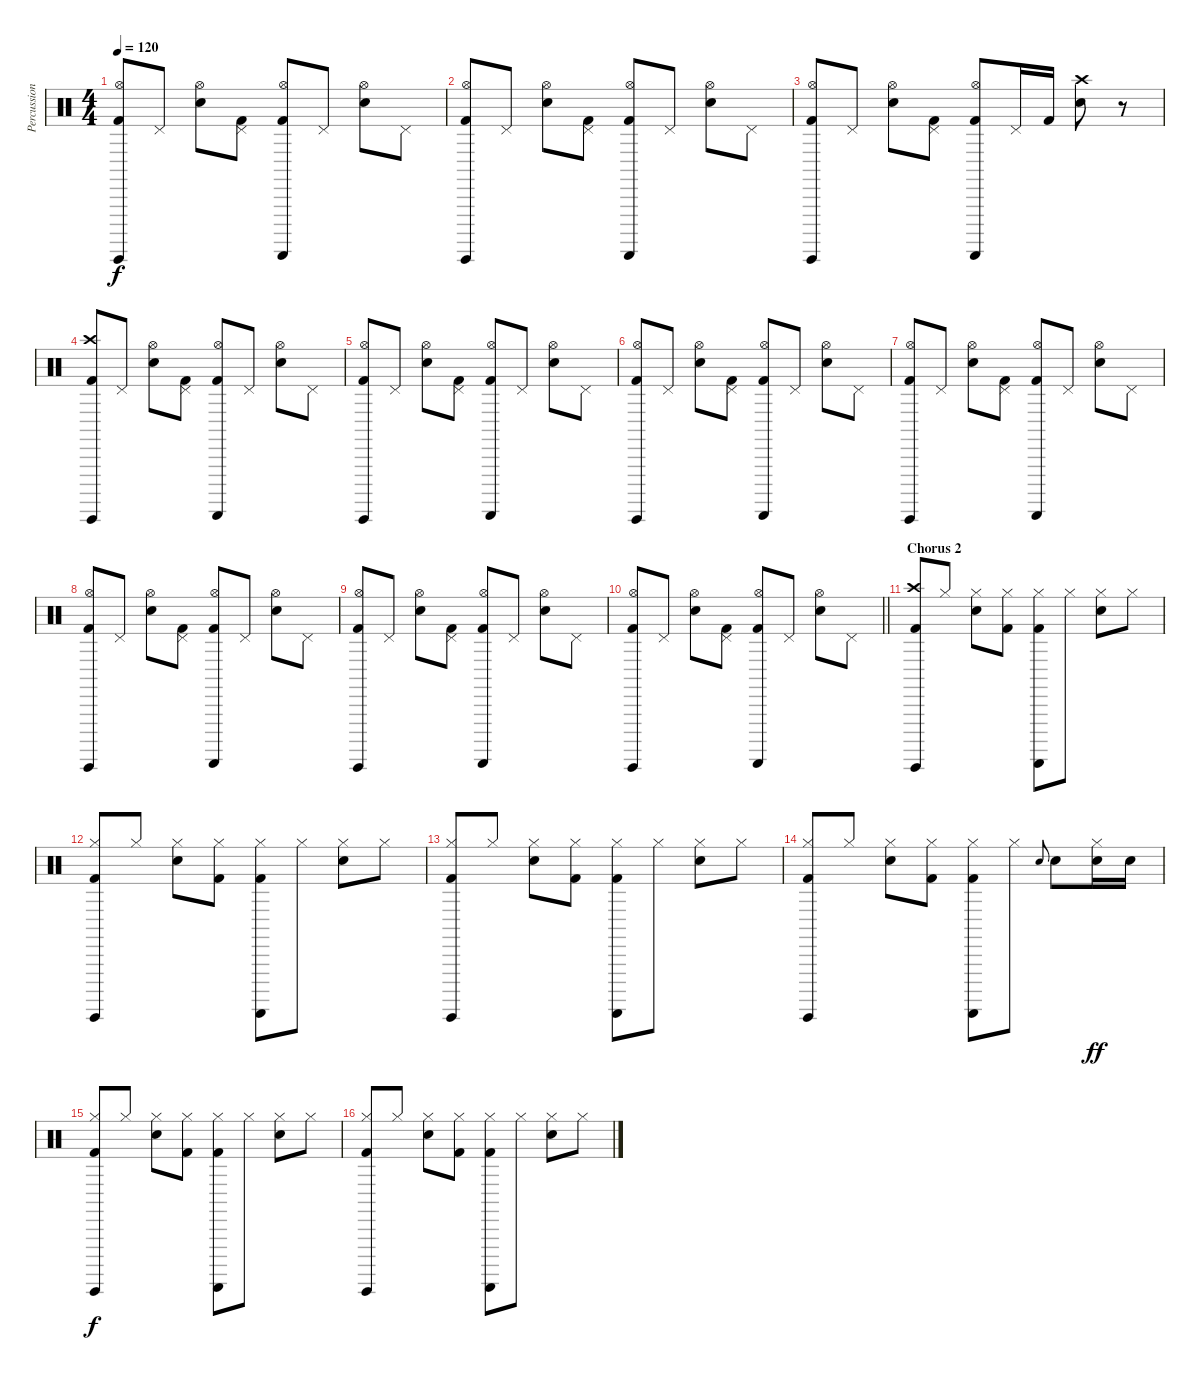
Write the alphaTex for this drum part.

\track ("Percussion" "Percussion") {instrument percussion}
\staff {score}
\articulation defaults
\ts (4 4)
\tempo 120
\clef neutral
\ks c
("Guiro (hit)" "Hi-Hat (open)" "Kick (hit) 2").8{dy f} "Pedal Hi-Hat (hit)".8 ("Hi-Hat (open)" "Electric Snare (hit)").8 ("Pedal Hi-Hat (hit)" "Kick (hit) 2").8 ("Guiro (scrap-return)" "Hi-Hat (open)" "Kick (hit) 2").8 "Pedal Hi-Hat (hit)".8 ("Hi-Hat (open)" "Electric Snare (hit)").8 "Pedal Hi-Hat (hit)".8 |
("Guiro (hit)" "Hi-Hat (open)" "Kick (hit) 2").8 "Pedal Hi-Hat (hit)".8 ("Hi-Hat (open)" "Electric Snare (hit)").8 ("Pedal Hi-Hat (hit)" "Kick (hit) 2").8 ("Guiro (scrap-return)" "Hi-Hat (open)" "Kick (hit) 2").8 "Pedal Hi-Hat (hit)".8 ("Hi-Hat (open)" "Electric Snare (hit)").8 "Pedal Hi-Hat (hit)".8 |
("Guiro (hit)" "Hi-Hat (open)" "Kick (hit) 2").8 "Pedal Hi-Hat (hit)".8 ("Hi-Hat (open)" "Electric Snare (hit)").8 ("Pedal Hi-Hat (hit)" "Kick (hit) 2").8 ("Guiro (scrap-return)" "Hi-Hat (open)" "Kick (hit) 2").8 "Pedal Hi-Hat (hit)".16 "Kick (hit) 2".16 ("Crash high (hit)" "Electric Snare (hit)").8 r.8 |
("Guiro (hit)" "Crash high (hit)" "Kick (hit) 2").8 "Pedal Hi-Hat (hit)".8 ("Hi-Hat (open)" "Electric Snare (hit)").8 ("Pedal Hi-Hat (hit)" "Kick (hit) 2").8 ("Guiro (scrap-return)" "Hi-Hat (open)" "Kick (hit) 2").8 "Pedal Hi-Hat (hit)".8 ("Hi-Hat (open)" "Electric Snare (hit)").8 "Pedal Hi-Hat (hit)".8 |
("Guiro (hit)" "Hi-Hat (open)" "Kick (hit) 2").8 "Pedal Hi-Hat (hit)".8 ("Hi-Hat (open)" "Electric Snare (hit)").8 ("Pedal Hi-Hat (hit)" "Kick (hit) 2").8 ("Guiro (scrap-return)" "Hi-Hat (open)" "Kick (hit) 2").8 "Pedal Hi-Hat (hit)".8 ("Hi-Hat (open)" "Electric Snare (hit)").8 "Pedal Hi-Hat (hit)".8 |
("Guiro (hit)" "Hi-Hat (open)" "Kick (hit) 2").8 "Pedal Hi-Hat (hit)".8 ("Hi-Hat (open)" "Electric Snare (hit)").8 ("Pedal Hi-Hat (hit)" "Kick (hit) 2").8 ("Guiro (scrap-return)" "Hi-Hat (open)" "Kick (hit) 2").8 "Pedal Hi-Hat (hit)".8 ("Hi-Hat (open)" "Electric Snare (hit)").8 "Pedal Hi-Hat (hit)".8 |
("Guiro (hit)" "Hi-Hat (open)" "Kick (hit) 2").8 "Pedal Hi-Hat (hit)".8 ("Hi-Hat (open)" "Electric Snare (hit)").8 ("Pedal Hi-Hat (hit)" "Kick (hit) 2").8 ("Guiro (scrap-return)" "Hi-Hat (open)" "Kick (hit) 2").8 "Pedal Hi-Hat (hit)".8 ("Hi-Hat (open)" "Electric Snare (hit)").8 "Pedal Hi-Hat (hit)".8 |
("Guiro (hit)" "Hi-Hat (open)" "Kick (hit) 2").8 "Pedal Hi-Hat (hit)".8 ("Hi-Hat (open)" "Electric Snare (hit)").8 ("Pedal Hi-Hat (hit)" "Kick (hit) 2").8 ("Guiro (scrap-return)" "Hi-Hat (open)" "Kick (hit) 2").8 "Pedal Hi-Hat (hit)".8 ("Hi-Hat (open)" "Electric Snare (hit)").8 "Pedal Hi-Hat (hit)".8 |
("Guiro (hit)" "Hi-Hat (open)" "Kick (hit) 2").8 "Pedal Hi-Hat (hit)".8 ("Hi-Hat (open)" "Electric Snare (hit)").8 ("Pedal Hi-Hat (hit)" "Kick (hit) 2").8 ("Guiro (scrap-return)" "Hi-Hat (open)" "Kick (hit) 2").8 "Pedal Hi-Hat (hit)".8 ("Hi-Hat (open)" "Electric Snare (hit)").8 "Pedal Hi-Hat (hit)".8 |
\barLineRight lightlight
("Guiro (hit)" "Hi-Hat (open)" "Kick (hit) 2").8 "Pedal Hi-Hat (hit)".8 ("Hi-Hat (open)" "Electric Snare (hit)").8 ("Pedal Hi-Hat (hit)" "Kick (hit) 2").8 ("Guiro (scrap-return)" "Hi-Hat (open)" "Kick (hit) 2").8 "Pedal Hi-Hat (hit)".8 ("Hi-Hat (open)" "Electric Snare (hit)").8 "Pedal Hi-Hat (hit)".8 |
\section ("" "Chorus 2")
("Guiro (hit)" "Crash high (hit)" "Kick (hit) 2").8 "Hi-Hat (closed)".8 ("Hi-Hat (closed)" "Electric Snare (hit)").8 ("Hi-Hat (closed)" "Kick (hit) 2").8 ("Guiro (scrap-return)" "Hi-Hat (closed)" "Kick (hit) 2").8 "Hi-Hat (closed)".8 ("Hi-Hat (closed)" "Electric Snare (hit)").8 "Hi-Hat (closed)".8 |
("Guiro (hit)" "Hi-Hat (closed)" "Kick (hit) 2").8 "Hi-Hat (closed)".8 ("Hi-Hat (closed)" "Electric Snare (hit)").8 ("Hi-Hat (closed)" "Kick (hit) 2").8 ("Guiro (scrap-return)" "Hi-Hat (closed)" "Kick (hit) 2").8 "Hi-Hat (closed)".8 ("Hi-Hat (closed)" "Electric Snare (hit)").8 "Hi-Hat (closed)".8 |
("Guiro (hit)" "Hi-Hat (closed)" "Kick (hit) 2").8 "Hi-Hat (closed)".8 ("Hi-Hat (closed)" "Electric Snare (hit)").8 ("Hi-Hat (closed)" "Kick (hit) 2").8 ("Guiro (scrap-return)" "Hi-Hat (closed)" "Kick (hit) 2").8 "Hi-Hat (closed)".8 ("Hi-Hat (closed)" "Electric Snare (hit)").8 "Hi-Hat (closed)".8 |
("Guiro (hit)" "Hi-Hat (closed)" "Kick (hit) 2").8 "Hi-Hat (closed)".8 ("Hi-Hat (closed)" "Electric Snare (hit)").8 ("Hi-Hat (closed)" "Kick (hit) 2").8 ("Guiro (scrap-return)" "Hi-Hat (closed)" "Kick (hit) 2").8 "Hi-Hat (closed)".8 "Electric Snare (hit)".8{gr onbeat} "Electric Snare (hit)".8 ("Hi-Hat (closed)" "Electric Snare (hit)").16{dy ff} "Electric Snare (hit)".16 |
("Guiro (hit)" "Hi-Hat (closed)" "Kick (hit) 2").8{dy f} "Hi-Hat (closed)".8 ("Hi-Hat (closed)" "Electric Snare (hit)").8 ("Hi-Hat (closed)" "Kick (hit) 2").8 ("Guiro (scrap-return)" "Hi-Hat (closed)" "Kick (hit) 2").8 "Hi-Hat (closed)".8 ("Hi-Hat (closed)" "Electric Snare (hit)").8 "Hi-Hat (closed)".8 |
("Guiro (hit)" "Hi-Hat (closed)" "Kick (hit) 2").8 "Hi-Hat (closed)".8 ("Hi-Hat (closed)" "Electric Snare (hit)").8 ("Hi-Hat (closed)" "Kick (hit) 2").8 ("Guiro (scrap-return)" "Hi-Hat (closed)" "Kick (hit) 2").8 "Hi-Hat (closed)".8 ("Hi-Hat (closed)" "Electric Snare (hit)").8 "Hi-Hat (closed)".8
